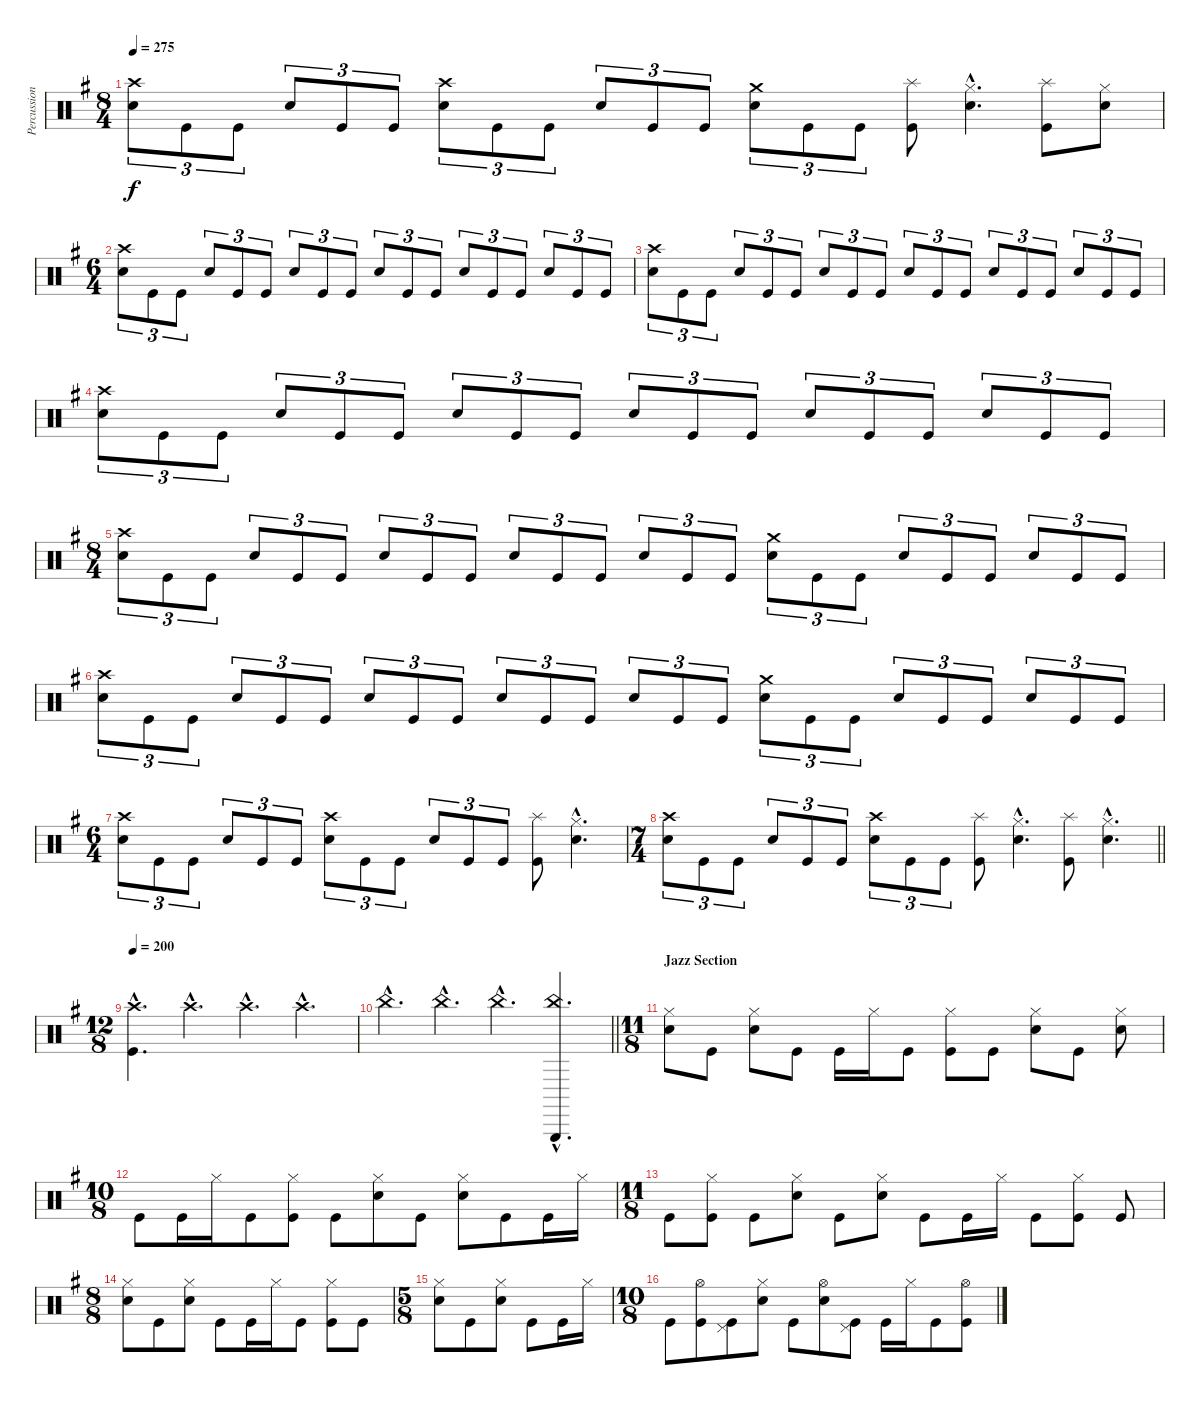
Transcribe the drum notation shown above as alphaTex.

\track ("Percussion" "Percussion") {instrument percussion}
\staff {score}
\articulation defaults
\ts (8 4)
\tempo 275
\clef neutral
\ks g
("Crash high (hit)" "Electric Snare (hit)").8{tu (3 2) dy f} "Kick (hit)".8{tu (3 2)} "Kick (hit)".8{tu (3 2)} "Electric Snare (hit)".8{tu (3 2)} "Kick (hit)".8{tu (3 2)} "Kick (hit)".8{tu (3 2)} ("Crash high (hit)" "Electric Snare (hit)").8{tu (3 2)} "Kick (hit)".8{tu (3 2)} "Kick (hit)".8{tu (3 2)} "Electric Snare (hit)".8{tu (3 2)} "Kick (hit)".8{tu (3 2)} "Kick (hit)".8{tu (3 2)} ("Crash medium (hit)" "Electric Snare (hit)").8{tu (3 2)} "Kick (hit)".8{tu (3 2)} "Kick (hit)".8{tu (3 2)} ("Splash (hit)" "Kick (hit)").8 ("Hi-Hat (closed)"{hac} "Electric Snare (hit)"{hac}).4{d} ("Splash (hit)" "Kick (hit)").8 ("Hi-Hat (closed)" "Electric Snare (hit)").8 |
\ts (6 4)
("Crash high (hit)" "Electric Snare (hit)").8{tu (3 2)} "Kick (hit)".8{tu (3 2)} "Kick (hit)".8{tu (3 2)} "Electric Snare (hit)".8{tu (3 2)} "Kick (hit)".8{tu (3 2)} "Kick (hit)".8{tu (3 2)} "Electric Snare (hit)".8{tu (3 2)} "Kick (hit)".8{tu (3 2)} "Kick (hit)".8{tu (3 2)} "Electric Snare (hit)".8{tu (3 2)} "Kick (hit)".8{tu (3 2)} "Kick (hit)".8{tu (3 2)} "Electric Snare (hit)".8{tu (3 2)} "Kick (hit)".8{tu (3 2)} "Kick (hit)".8{tu (3 2)} "Electric Snare (hit)".8{tu (3 2)} "Kick (hit)".8{tu (3 2)} "Kick (hit)".8{tu (3 2)} |
("Crash high (hit)" "Electric Snare (hit)").8{tu (3 2)} "Kick (hit)".8{tu (3 2)} "Kick (hit)".8{tu (3 2)} "Electric Snare (hit)".8{tu (3 2)} "Kick (hit)".8{tu (3 2)} "Kick (hit)".8{tu (3 2)} "Electric Snare (hit)".8{tu (3 2)} "Kick (hit)".8{tu (3 2)} "Kick (hit)".8{tu (3 2)} "Electric Snare (hit)".8{tu (3 2)} "Kick (hit)".8{tu (3 2)} "Kick (hit)".8{tu (3 2)} "Electric Snare (hit)".8{tu (3 2)} "Kick (hit)".8{tu (3 2)} "Kick (hit)".8{tu (3 2)} "Electric Snare (hit)".8{tu (3 2)} "Kick (hit)".8{tu (3 2)} "Kick (hit)".8{tu (3 2)} |
("Crash high (hit)" "Electric Snare (hit)").8{tu (3 2)} "Kick (hit)".8{tu (3 2)} "Kick (hit)".8{tu (3 2)} "Electric Snare (hit)".8{tu (3 2)} "Kick (hit)".8{tu (3 2)} "Kick (hit)".8{tu (3 2)} "Electric Snare (hit)".8{tu (3 2)} "Kick (hit)".8{tu (3 2)} "Kick (hit)".8{tu (3 2)} "Electric Snare (hit)".8{tu (3 2)} "Kick (hit)".8{tu (3 2)} "Kick (hit)".8{tu (3 2)} "Electric Snare (hit)".8{tu (3 2)} "Kick (hit)".8{tu (3 2)} "Kick (hit)".8{tu (3 2)} "Electric Snare (hit)".8{tu (3 2)} "Kick (hit)".8{tu (3 2)} "Kick (hit)".8{tu (3 2)} |
\ts (8 4)
("Crash high (hit)" "Electric Snare (hit)").8{tu (3 2)} "Kick (hit)".8{tu (3 2)} "Kick (hit)".8{tu (3 2)} "Electric Snare (hit)".8{tu (3 2)} "Kick (hit)".8{tu (3 2)} "Kick (hit)".8{tu (3 2)} "Electric Snare (hit)".8{tu (3 2)} "Kick (hit)".8{tu (3 2)} "Kick (hit)".8{tu (3 2)} "Electric Snare (hit)".8{tu (3 2)} "Kick (hit)".8{tu (3 2)} "Kick (hit)".8{tu (3 2)} "Electric Snare (hit)".8{tu (3 2)} "Kick (hit)".8{tu (3 2)} "Kick (hit)".8{tu (3 2)} ("Crash medium (hit)" "Electric Snare (hit)").8{tu (3 2)} "Kick (hit)".8{tu (3 2)} "Kick (hit)".8{tu (3 2)} "Electric Snare (hit)".8{tu (3 2)} "Kick (hit)".8{tu (3 2)} "Kick (hit)".8{tu (3 2)} "Electric Snare (hit)".8{tu (3 2)} "Kick (hit)".8{tu (3 2)} "Kick (hit)".8{tu (3 2)} |
("Crash high (hit)" "Electric Snare (hit)").8{tu (3 2)} "Kick (hit)".8{tu (3 2)} "Kick (hit)".8{tu (3 2)} "Electric Snare (hit)".8{tu (3 2)} "Kick (hit)".8{tu (3 2)} "Kick (hit)".8{tu (3 2)} "Electric Snare (hit)".8{tu (3 2)} "Kick (hit)".8{tu (3 2)} "Kick (hit)".8{tu (3 2)} "Electric Snare (hit)".8{tu (3 2)} "Kick (hit)".8{tu (3 2)} "Kick (hit)".8{tu (3 2)} "Electric Snare (hit)".8{tu (3 2)} "Kick (hit)".8{tu (3 2)} "Kick (hit)".8{tu (3 2)} ("Crash medium (hit)" "Electric Snare (hit)").8{tu (3 2)} "Kick (hit)".8{tu (3 2)} "Kick (hit)".8{tu (3 2)} "Electric Snare (hit)".8{tu (3 2)} "Kick (hit)".8{tu (3 2)} "Kick (hit)".8{tu (3 2)} "Electric Snare (hit)".8{tu (3 2)} "Kick (hit)".8{tu (3 2)} "Kick (hit)".8{tu (3 2)} |
\ts (6 4)
("Crash high (hit)" "Electric Snare (hit)").8{tu (3 2)} "Kick (hit)".8{tu (3 2)} "Kick (hit)".8{tu (3 2)} "Electric Snare (hit)".8{tu (3 2)} "Kick (hit)".8{tu (3 2)} "Kick (hit)".8{tu (3 2)} ("Crash high (hit)" "Electric Snare (hit)").8{tu (3 2)} "Kick (hit)".8{tu (3 2)} "Kick (hit)".8{tu (3 2)} "Electric Snare (hit)".8{tu (3 2)} "Kick (hit)".8{tu (3 2)} "Kick (hit)".8{tu (3 2)} ("Splash (hit)" "Kick (hit)").8 ("Hi-Hat (closed)"{hac} "Electric Snare (hit)"{hac}).4{d} |
\ts (7 4)
\barLineRight lightlight
("Crash high (hit)" "Electric Snare (hit)").8{tu (3 2)} "Kick (hit)".8{tu (3 2)} "Kick (hit)".8{tu (3 2)} "Electric Snare (hit)".8{tu (3 2)} "Kick (hit)".8{tu (3 2)} "Kick (hit)".8{tu (3 2)} ("Crash high (hit)" "Electric Snare (hit)").8{tu (3 2)} "Kick (hit)".8{tu (3 2)} "Kick (hit)".8{tu (3 2)} ("Splash (hit)" "Kick (hit)").8 ("Hi-Hat (closed)"{hac} "Electric Snare (hit)"{hac}).4{d} ("Splash (hit)" "Kick (hit)").8 ("Hi-Hat (closed)"{hac} "Electric Snare (hit)"{hac}).4{d} |
\ts (12 8)
\tempo 200
("Crash high (hit)"{hac} "Kick (hit)"{hac}).4{d} "Crash high (hit)"{hac}.4{d} "Crash high (hit)"{hac}.4{d} "Crash high (hit)"{hac}.4{d} |
\barLineRight lightlight "China (hit)"{hac}.4{d} "China (hit)"{hac}.4{d} "China (hit)"{hac}.4{d}
("Triangle (hit)"{hac} "China (hit)"{hac}).4{d} |
\ts (11 8)
\section ("" "Jazz Section")
("Hi-Hat (closed)" "Electric Snare (hit)").8 "Kick (hit)".8 ("Hi-Hat (closed)" "Electric Snare (hit)").8 "Kick (hit)".8 "Kick (hit)".16 "Hi-Hat (closed)".16 "Kick (hit)".8 ("Hi-Hat (closed)" "Kick (hit)").8 "Kick (hit)".8 ("Hi-Hat (closed)" "Electric Snare (hit)").8 "Kick (hit)".8 ("Hi-Hat (closed)" "Electric Snare (hit)").8 |
\ts (10 8)
"Kick (hit)".8 "Kick (hit)".16 "Hi-Hat (closed)".16 "Kick (hit)".8 ("Hi-Hat (closed)" "Kick (hit)").8 "Kick (hit)".8 ("Hi-Hat (closed)" "Electric Snare (hit)").8 "Kick (hit)".8 ("Hi-Hat (closed)" "Electric Snare (hit)").8 "Kick (hit)".8 "Kick (hit)".16 "Hi-Hat (closed)".16 |
\ts (11 8)
"Kick (hit)".8 ("Hi-Hat (closed)" "Kick (hit)").8 "Kick (hit)".8 ("Hi-Hat (closed)" "Electric Snare (hit)").8 "Kick (hit)".8 ("Hi-Hat (closed)" "Electric Snare (hit)").8 "Kick (hit)".8 "Kick (hit)".16 "Hi-Hat (closed)".16 "Kick (hit)".8 ("Hi-Hat (closed)" "Kick (hit)").8 "Kick (hit)".8 |
\ts (8 8)
("Hi-Hat (closed)" "Electric Snare (hit)").8 "Kick (hit)".8 ("Hi-Hat (closed)" "Electric Snare (hit)").8 "Kick (hit)".8 "Kick (hit)".16 "Hi-Hat (closed)".16 "Kick (hit)".8 ("Hi-Hat (closed)" "Kick (hit)").8 "Kick (hit)".8 |
\ts (5 8)
("Hi-Hat (closed)" "Electric Snare (hit)").8 "Kick (hit)".8 ("Hi-Hat (closed)" "Electric Snare (hit)").8 "Kick (hit)".8 "Kick (hit)".16 "Hi-Hat (closed)".16 |
\ts (10 8)
"Kick (hit)".8 ("Hi-Hat (open)" "Kick (hit)").8 ("Pedal Hi-Hat (hit)" "Kick (hit)").8 ("Hi-Hat (closed)" "Electric Snare (hit)").8 "Kick (hit)".8 ("Hi-Hat (open)" "Electric Snare (hit)").8 ("Pedal Hi-Hat (hit)" "Kick (hit)").8 "Kick (hit)".16 "Hi-Hat (closed)".16 "Kick (hit)".8 ("Hi-Hat (open)" "Kick (hit)").8
